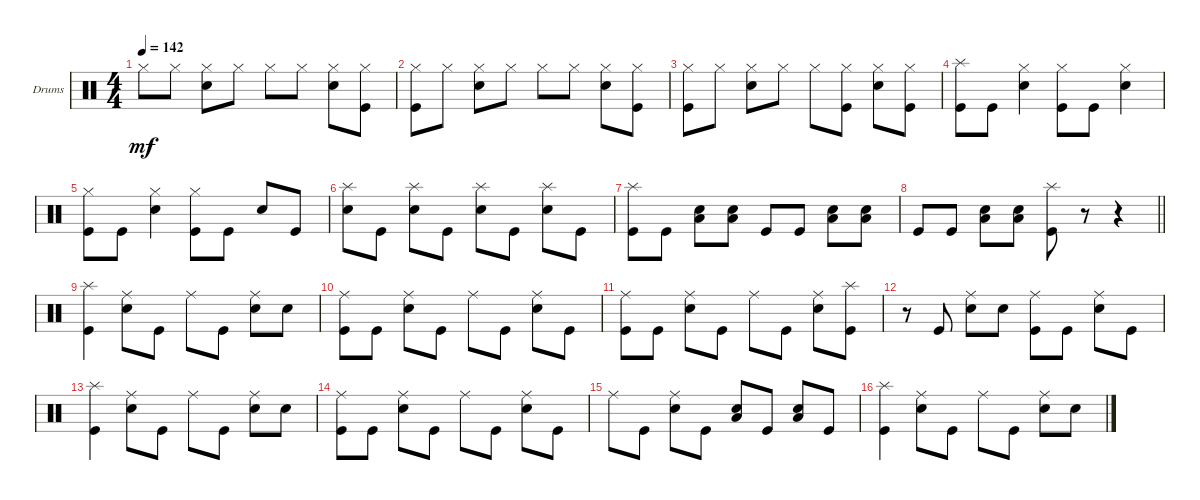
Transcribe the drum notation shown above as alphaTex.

\defaultSystemsLayout 4
\bracketExtendMode groupsimilarinstruments
\firstSystemTrackNameOrientation horizontal
\otherSystemsTrackNameOrientation horizontal
\track ("Drums" "Drums") {instrument percussion}
\staff {score}
\articulation defaults
\ts (4 4)
\tempo 142
\clef neutral
\ks c "Hi-Hat (closed)".8{dy mf} "Hi-Hat (closed)".8
("Hi-Hat (closed)" "Snare (hit) 2").8 "Hi-Hat (closed)".8 "Hi-Hat (closed)".8 "Hi-Hat (closed)".8 ("Hi-Hat (closed)" "Snare (hit) 2").8 ("Hi-Hat (closed)" "Kick (hit)").8 |
("Hi-Hat (closed)" "Kick (hit)").8 "Hi-Hat (closed)".8 ("Hi-Hat (closed)" "Snare (hit) 2").8 "Hi-Hat (closed)".8 "Hi-Hat (closed)".8 "Hi-Hat (closed)".8 ("Hi-Hat (closed)" "Snare (hit) 2").8 ("Hi-Hat (closed)" "Kick (hit)").8 |
("Hi-Hat (closed)" "Kick (hit)").8 "Hi-Hat (closed)".8 ("Hi-Hat (closed)" "Snare (hit) 2").8 "Hi-Hat (closed)".8 "Hi-Hat (closed)".8 ("Hi-Hat (closed)" "Kick (hit)").8 ("Hi-Hat (closed)" "Snare (hit) 2").8 ("Hi-Hat (closed)" "Kick (hit)").8 |
("Splash (hit)" "Kick (hit)").8 "Kick (hit)".8 ("Snare (hit) 2" "Hi-Hat (closed)").4 ("Hi-Hat (closed)" "Kick (hit)").8 "Kick (hit)".8 ("Snare (hit) 2" "Hi-Hat (closed)").4 |
("Kick (hit)" "Hi-Hat (closed)").8 "Kick (hit)".8 ("Snare (hit) 2" "Hi-Hat (closed)").4 ("Hi-Hat (closed)" "Kick (hit)").8 "Kick (hit)".8 "Snare (hit) 2".8 "Kick (hit)".8 |
("Snare (hit) 2" "Splash (hit)").8 "Kick (hit)".8 ("Snare (hit) 2" "Splash (hit)").8 "Kick (hit)".8 ("Snare (hit) 2" "Splash (hit)").8 "Kick (hit)".8 ("Snare (hit) 2" "Splash (hit)").8 "Kick (hit)".8 |
("Splash (hit)" "Kick (hit)").8 "Kick (hit)".8 ("Low Tom (hit)" "Snare (hit) 2").8 ("Low Tom (hit)" "Snare (hit) 2").8 "Kick (hit)".8 "Kick (hit)".8 ("Low Tom (hit)" "Snare (hit) 2").8 ("Low Tom (hit)" "Snare (hit) 2").8 |
\barLineRight lightlight "Kick (hit)".8 "Kick (hit)".8
("Low Tom (hit)" "Snare (hit) 2").8 ("Low Tom (hit)" "Snare (hit) 2").8 ("Kick (hit)" "Splash (hit)").8 r.8 r.4 |
("Splash (hit)" "Kick (hit)").4 ("Snare (hit) 2" "Ride (middle)").8 "Kick (hit)".8 "Ride (middle)".8 "Kick (hit)".8 ("Snare (hit) 2" "Ride (middle)").8 "Snare (hit) 2".8 |
("Ride (middle)" "Kick (hit)").8 "Kick (hit)".8 ("Snare (hit) 2" "Ride (middle)").8 "Kick (hit)".8 "Ride (middle)".8 "Kick (hit)".8 ("Snare (hit) 2" "Ride (middle)").8 "Kick (hit)".8 |
("Ride (middle)" "Kick (hit)").8 "Kick (hit)".8 ("Snare (hit) 2" "Ride (middle)").8 "Kick (hit)".8 "Ride (middle)".8 "Kick (hit)".8 ("Snare (hit) 2" "Ride (middle)").8 ("Kick (hit)" "Splash (hit)").8 |
r.8 "Kick (hit)".8 ("Snare (hit) 2" "Ride (middle)").8 "Snare (hit) 2".8 ("Kick (hit)" "Ride (middle)").8 "Kick (hit)".8 ("Snare (hit) 2" "Ride (middle)").8 "Kick (hit)".8 |
("Splash (hit)" "Kick (hit)").4 ("Snare (hit) 2" "Ride (middle)").8 "Kick (hit)".8 "Ride (middle)".8 "Kick (hit)".8 ("Snare (hit) 2" "Ride (middle)").8 "Snare (hit) 2".8 |
("Ride (middle)" "Kick (hit)").8 "Kick (hit)".8 ("Snare (hit) 2" "Ride (middle)").8 "Kick (hit)".8 "Ride (middle)".8 "Kick (hit)".8 ("Snare (hit) 2" "Ride (middle)").8 "Kick (hit)".8 |
"Ride (middle)".8 "Kick (hit)".8 ("Snare (hit) 2" "Ride (middle)").8 "Kick (hit)".8 ("Low Tom (hit)" "Snare (hit) 2").8 "Kick (hit)".8 ("Low Tom (hit)" "Snare (hit) 2").8 "Kick (hit)".8 |
("Splash (hit)" "Kick (hit)").4 ("Snare (hit) 2" "Ride (middle)").8 "Kick (hit)".8 "Ride (middle)".8 "Kick (hit)".8 ("Snare (hit) 2" "Ride (middle)").8 "Snare (hit) 2".8
